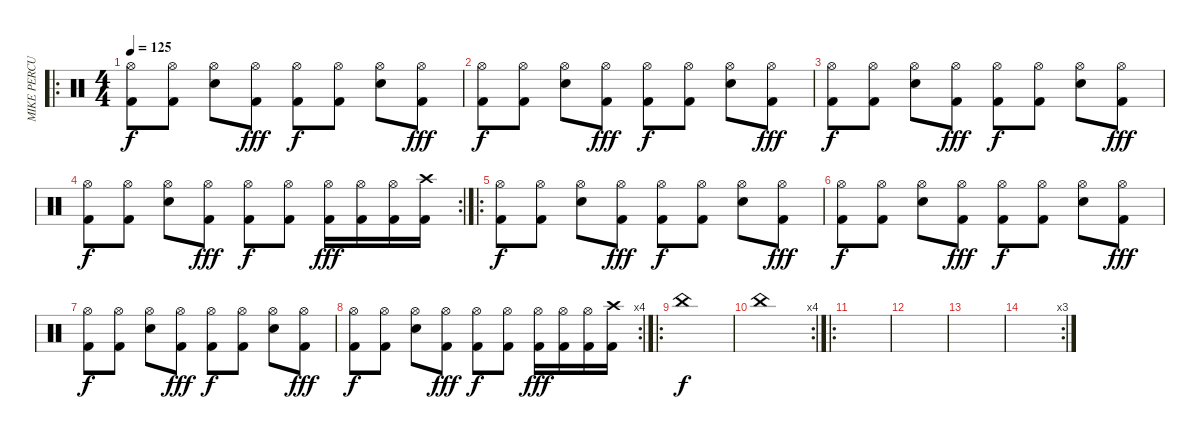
\track ("MIKE PERCUSSIONS" "MIKE PERCU") {instrument percussion}
\staff {score}
\articulation defaults
\ro
\ts (4 4)
\tempo 125
\clef neutral
\ks c
("Hi-Hat (open)" "Kick (hit) 2").8{dy f} ("Hi-Hat (open)" "Kick (hit) 2").8 ("Hi-Hat (open)" "Electric Snare (hit)").8 ("Hi-Hat (open)" "Kick (hit) 2").8{dy fff} ("Hi-Hat (open)" "Kick (hit) 2").8{dy f} ("Hi-Hat (open)" "Kick (hit) 2").8 ("Hi-Hat (open)" "Electric Snare (hit)").8 ("Hi-Hat (open)" "Kick (hit) 2").8{dy fff} |
("Hi-Hat (open)" "Kick (hit) 2").8{dy f} ("Hi-Hat (open)" "Kick (hit) 2").8 ("Hi-Hat (open)" "Electric Snare (hit)").8 ("Hi-Hat (open)" "Kick (hit) 2").8{dy fff} ("Hi-Hat (open)" "Kick (hit) 2").8{dy f} ("Hi-Hat (open)" "Kick (hit) 2").8 ("Hi-Hat (open)" "Electric Snare (hit)").8 ("Hi-Hat (open)" "Kick (hit) 2").8{dy fff} |
("Hi-Hat (open)" "Kick (hit) 2").8{dy f} ("Hi-Hat (open)" "Kick (hit) 2").8 ("Hi-Hat (open)" "Electric Snare (hit)").8 ("Hi-Hat (open)" "Kick (hit) 2").8{dy fff} ("Hi-Hat (open)" "Kick (hit) 2").8{dy f} ("Hi-Hat (open)" "Kick (hit) 2").8 ("Hi-Hat (open)" "Electric Snare (hit)").8 ("Hi-Hat (open)" "Kick (hit) 2").8{dy fff} |
\rc 2
("Hi-Hat (open)" "Kick (hit) 2").8{dy f} ("Hi-Hat (open)" "Kick (hit) 2").8 ("Hi-Hat (open)" "Electric Snare (hit)").8 ("Hi-Hat (open)" "Kick (hit) 2").8{dy fff} ("Hi-Hat (open)" "Kick (hit) 2").8{dy f} ("Hi-Hat (open)" "Kick (hit) 2").8 ("Hi-Hat (open)" "Kick (hit) 2").16{dy fff} ("Hi-Hat (open)" "Kick (hit) 2").16 ("Hi-Hat (open)" "Kick (hit) 2").16 ("Crash high (hit)" "Kick (hit) 2").16 |
\ro
("Hi-Hat (open)" "Kick (hit) 2").8{dy f} ("Hi-Hat (open)" "Kick (hit) 2").8 ("Hi-Hat (open)" "Electric Snare (hit)").8 ("Hi-Hat (open)" "Kick (hit) 2").8{dy fff} ("Hi-Hat (open)" "Kick (hit) 2").8{dy f} ("Hi-Hat (open)" "Kick (hit) 2").8 ("Hi-Hat (open)" "Electric Snare (hit)").8 ("Hi-Hat (open)" "Kick (hit) 2").8{dy fff} |
("Hi-Hat (open)" "Kick (hit) 2").8{dy f} ("Hi-Hat (open)" "Kick (hit) 2").8 ("Hi-Hat (open)" "Electric Snare (hit)").8 ("Hi-Hat (open)" "Kick (hit) 2").8{dy fff} ("Hi-Hat (open)" "Kick (hit) 2").8{dy f} ("Hi-Hat (open)" "Kick (hit) 2").8 ("Hi-Hat (open)" "Electric Snare (hit)").8 ("Hi-Hat (open)" "Kick (hit) 2").8{dy fff} |
("Hi-Hat (open)" "Kick (hit) 2").8{dy f} ("Hi-Hat (open)" "Kick (hit) 2").8 ("Hi-Hat (open)" "Electric Snare (hit)").8 ("Hi-Hat (open)" "Kick (hit) 2").8{dy fff} ("Hi-Hat (open)" "Kick (hit) 2").8{dy f} ("Hi-Hat (open)" "Kick (hit) 2").8 ("Hi-Hat (open)" "Electric Snare (hit)").8 ("Hi-Hat (open)" "Kick (hit) 2").8{dy fff} |
\rc 4
("Hi-Hat (open)" "Kick (hit) 2").8{dy f} ("Hi-Hat (open)" "Kick (hit) 2").8 ("Hi-Hat (open)" "Electric Snare (hit)").8 ("Hi-Hat (open)" "Kick (hit) 2").8{dy fff} ("Hi-Hat (open)" "Kick (hit) 2").8{dy f} ("Hi-Hat (open)" "Kick (hit) 2").8 ("Hi-Hat (open)" "Kick (hit) 2").16{dy fff} ("Hi-Hat (open)" "Kick (hit) 2").16 ("Hi-Hat (open)" "Kick (hit) 2").16 ("Crash high (hit)" "Kick (hit) 2").16 |
\ro "China (hit)".1{dy f}
|
\rc 4 "China (hit)".1
|
\ro
|
|
|
\rc 3
